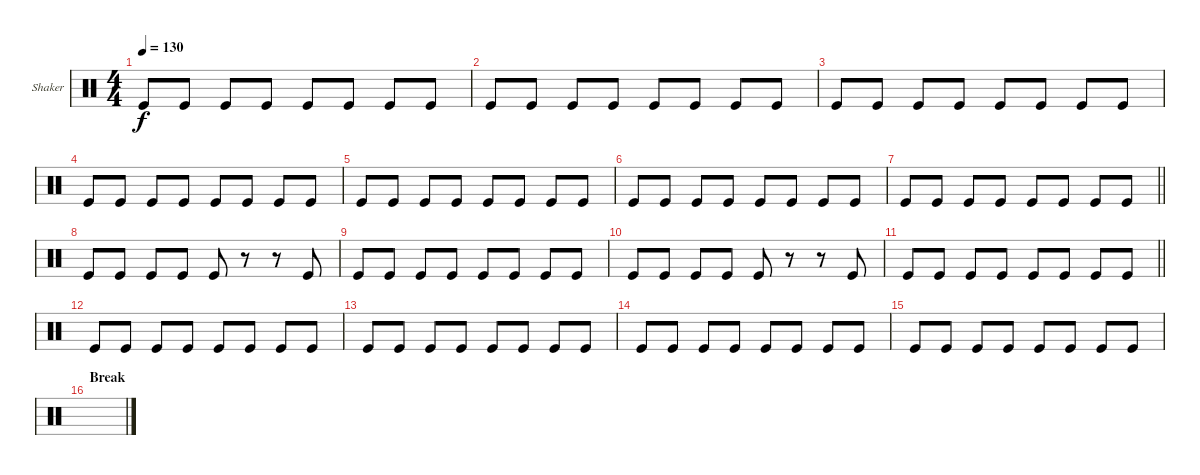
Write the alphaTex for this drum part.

\defaultSystemsLayout 4
\bracketExtendMode groupsimilarinstruments
\firstSystemTrackNameOrientation horizontal
\otherSystemsTrackNameOrientation horizontal
\track ("Shaker" "Shaker") {instrument percussion}
\staff {score}
\articulation defaults
\ts (4 4)
\tempo 130
\clef neutral
\scale
0.333333
\ks aminor "Kick (hit)".8{dy f} "Kick (hit)".8 "Kick (hit)".8 "Kick (hit)".8 "Kick (hit)".8 "Kick (hit)".8 "Kick (hit)".8 "Kick (hit)".8
|
\scale
0.333333 "Kick (hit)".8 "Kick (hit)".8 "Kick (hit)".8 "Kick (hit)".8 "Kick (hit)".8 "Kick (hit)".8 "Kick (hit)".8 "Kick (hit)".8 |
\scale
0.333333 "Kick (hit)".8 "Kick (hit)".8 "Kick (hit)".8 "Kick (hit)".8 "Kick (hit)".8 "Kick (hit)".8 "Kick (hit)".8 "Kick (hit)".8 |
\scale
0.333333 "Kick (hit)".8 "Kick (hit)".8 "Kick (hit)".8 "Kick (hit)".8 "Kick (hit)".8 "Kick (hit)".8 "Kick (hit)".8 "Kick (hit)".8 |
\scale
0.333333 "Kick (hit)".8 "Kick (hit)".8 "Kick (hit)".8 "Kick (hit)".8 "Kick (hit)".8 "Kick (hit)".8 "Kick (hit)".8 "Kick (hit)".8 |
\scale
0.333333 "Kick (hit)".8 "Kick (hit)".8 "Kick (hit)".8 "Kick (hit)".8 "Kick (hit)".8 "Kick (hit)".8 "Kick (hit)".8 "Kick (hit)".8 |
\scale
0.333333
\barLineRight lightlight "Kick (hit)".8 "Kick (hit)".8 "Kick (hit)".8 "Kick (hit)".8 "Kick (hit)".8 "Kick (hit)".8 "Kick (hit)".8 "Kick (hit)".8
|
\scale
0.333333 "Kick (hit)".8 "Kick (hit)".8 "Kick (hit)".8 "Kick (hit)".8 "Kick (hit)".8 r.8 r.8 "Kick (hit)".8 |
\scale
0.333333 "Kick (hit)".8 "Kick (hit)".8 "Kick (hit)".8 "Kick (hit)".8 "Kick (hit)".8 "Kick (hit)".8 "Kick (hit)".8 "Kick (hit)".8 |
\scale
0.333333 "Kick (hit)".8 "Kick (hit)".8 "Kick (hit)".8 "Kick (hit)".8 "Kick (hit)".8 r.8 r.8 "Kick (hit)".8 |
\scale
0.333333
\barLineRight lightlight "Kick (hit)".8 "Kick (hit)".8 "Kick (hit)".8 "Kick (hit)".8 "Kick (hit)".8 "Kick (hit)".8 "Kick (hit)".8 "Kick (hit)".8
|
\scale
0.333333 "Kick (hit)".8 "Kick (hit)".8 "Kick (hit)".8 "Kick (hit)".8 "Kick (hit)".8 "Kick (hit)".8 "Kick (hit)".8 "Kick (hit)".8 |
\scale
0.333333 "Kick (hit)".8 "Kick (hit)".8 "Kick (hit)".8 "Kick (hit)".8 "Kick (hit)".8 "Kick (hit)".8 "Kick (hit)".8 "Kick (hit)".8 |
\scale
0.333333 "Kick (hit)".8 "Kick (hit)".8 "Kick (hit)".8 "Kick (hit)".8 "Kick (hit)".8 "Kick (hit)".8 "Kick (hit)".8 "Kick (hit)".8 |
\scale
0.333333 "Kick (hit)".8 "Kick (hit)".8 "Kick (hit)".8 "Kick (hit)".8 "Kick (hit)".8 "Kick (hit)".8 "Kick (hit)".8 "Kick (hit)".8 |
\section ("" "Break")
\scale
0.333333
